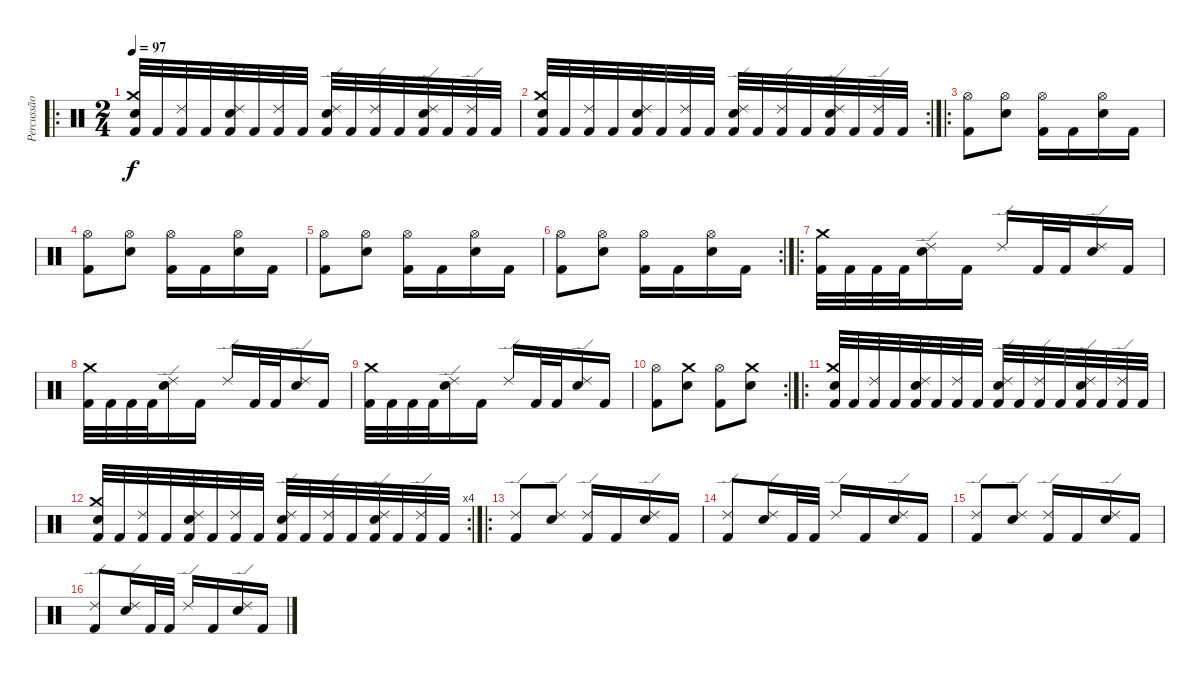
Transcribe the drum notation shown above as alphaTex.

\track ("Percussão" "Percussão") {instrument percussion}
\staff {score}
\articulation defaults
\ro
\ts (2 4)
\tempo 97
\clef neutral
\ks c
("Snare (hit) 2" "Crash medium (hit)" "Kick (hit) 2").32{dy f} "Kick (hit) 2".32 ("Ride (edge) 2" "Kick (hit) 2").32 "Kick (hit) 2".32 ("Ride (edge) 2" "Snare (hit) 2" "Kick (hit) 2").32 "Kick (hit) 2".32 ("Ride (edge) 2" "Kick (hit) 2").32 "Kick (hit) 2".32 ("Ride (edge) 2" "Snare (hit) 2" "Kick (hit) 2").32 "Kick (hit) 2".32 ("Ride (edge) 2" "Kick (hit) 2").32 "Kick (hit) 2".32 ("Ride (edge) 2" "Snare (hit) 2" "Kick (hit) 2").32 "Kick (hit) 2".32 ("Ride (edge) 2" "Kick (hit) 2").32 "Kick (hit) 2".32 |
\rc 2
("Snare (hit) 2" "Crash medium (hit)" "Kick (hit) 2").32 "Kick (hit) 2".32 ("Ride (edge) 2" "Kick (hit) 2").32 "Kick (hit) 2".32 ("Ride (edge) 2" "Snare (hit) 2" "Kick (hit) 2").32 "Kick (hit) 2".32 ("Ride (edge) 2" "Kick (hit) 2").32 "Kick (hit) 2".32 ("Ride (edge) 2" "Snare (hit) 2" "Kick (hit) 2").32 "Kick (hit) 2".32 ("Ride (edge) 2" "Kick (hit) 2").32 "Kick (hit) 2".32 ("Ride (edge) 2" "Snare (hit) 2" "Kick (hit) 2").32 "Kick (hit) 2".32 ("Ride (edge) 2" "Kick (hit) 2").32 "Kick (hit) 2".32 |
\ro
("Hi-Hat (open)" "Kick (hit) 2").8 ("Hi-Hat (open)" "Snare (hit) 2").8 ("Hi-Hat (open)" "Kick (hit) 2").16 "Kick (hit) 2".16 ("Hi-Hat (open)" "Snare (hit) 2").16 "Kick (hit) 2".16 |
("Hi-Hat (open)" "Kick (hit) 2").8 ("Hi-Hat (open)" "Snare (hit) 2").8 ("Hi-Hat (open)" "Kick (hit) 2").16 "Kick (hit) 2".16 ("Hi-Hat (open)" "Snare (hit) 2").16 "Kick (hit) 2".16 |
("Hi-Hat (open)" "Kick (hit) 2").8 ("Hi-Hat (open)" "Snare (hit) 2").8 ("Hi-Hat (open)" "Kick (hit) 2").16 "Kick (hit) 2".16 ("Hi-Hat (open)" "Snare (hit) 2").16 "Kick (hit) 2".16 |
\rc 2
("Hi-Hat (open)" "Kick (hit) 2").8 ("Hi-Hat (open)" "Snare (hit) 2").8 ("Hi-Hat (open)" "Kick (hit) 2").16 "Kick (hit) 2".16 ("Hi-Hat (open)" "Snare (hit) 2").16 "Kick (hit) 2".16 |
\ro
("Crash medium (hit)" "Kick (hit) 2").32 "Kick (hit) 2".32 "Kick (hit) 2".32 "Kick (hit) 2".32 ("Ride (edge) 2" "Snare (hit) 2").16 "Kick (hit) 2".16 "Ride (edge) 2".16 "Kick (hit) 2".32 "Kick (hit) 2".32 ("Ride (edge) 2" "Snare (hit) 2").16 "Kick (hit) 2".16 |
("Crash medium (hit)" "Kick (hit) 2").32 "Kick (hit) 2".32 "Kick (hit) 2".32 "Kick (hit) 2".32 ("Ride (edge) 2" "Snare (hit) 2").16 "Kick (hit) 2".16 "Ride (edge) 2".16 "Kick (hit) 2".32 "Kick (hit) 2".32 ("Ride (edge) 2" "Snare (hit) 2").16 "Kick (hit) 2".16 |
("Crash medium (hit)" "Kick (hit) 2").32 "Kick (hit) 2".32 "Kick (hit) 2".32 "Kick (hit) 2".32 ("Ride (edge) 2" "Snare (hit) 2").16 "Kick (hit) 2".16 "Ride (edge) 2".16 "Kick (hit) 2".32 "Kick (hit) 2".32 ("Ride (edge) 2" "Snare (hit) 2").16 "Kick (hit) 2".16 |
\rc 2
("Hi-Hat (open)" "Kick (hit) 2").8 ("Crash medium (hit)" "Snare (hit) 2").8 ("Hi-Hat (open)" "Kick (hit) 2").8 ("Crash medium (hit)" "Snare (hit) 2").8 |
\ro
("Snare (hit) 2" "Crash medium (hit)" "Kick (hit) 2").32 "Kick (hit) 2".32 ("Ride (edge) 2" "Kick (hit) 2").32 "Kick (hit) 2".32 ("Ride (edge) 2" "Snare (hit) 2" "Kick (hit) 2").32 "Kick (hit) 2".32 ("Ride (edge) 2" "Kick (hit) 2").32 "Kick (hit) 2".32 ("Ride (edge) 2" "Snare (hit) 2" "Kick (hit) 2").32 "Kick (hit) 2".32 ("Ride (edge) 2" "Kick (hit) 2").32 "Kick (hit) 2".32 ("Ride (edge) 2" "Snare (hit) 2" "Kick (hit) 2").32 "Kick (hit) 2".32 ("Ride (edge) 2" "Kick (hit) 2").32 "Kick (hit) 2".32 |
\rc 4
("Snare (hit) 2" "Crash medium (hit)" "Kick (hit) 2").32 "Kick (hit) 2".32 ("Ride (edge) 2" "Kick (hit) 2").32 "Kick (hit) 2".32 ("Ride (edge) 2" "Snare (hit) 2" "Kick (hit) 2").32 "Kick (hit) 2".32 ("Ride (edge) 2" "Kick (hit) 2").32 "Kick (hit) 2".32 ("Ride (edge) 2" "Snare (hit) 2" "Kick (hit) 2").32 "Kick (hit) 2".32 ("Ride (edge) 2" "Kick (hit) 2").32 "Kick (hit) 2".32 ("Ride (edge) 2" "Snare (hit) 2" "Kick (hit) 2").32 "Kick (hit) 2".32 ("Ride (edge) 2" "Kick (hit) 2").32 "Kick (hit) 2".32 |
\ro
("Ride (edge) 2" "Kick (hit) 2").8 ("Ride (edge) 2" "Snare (hit) 2").8 ("Ride (edge) 2" "Kick (hit) 2").16 "Kick (hit) 2".16 ("Ride (edge) 2" "Snare (hit) 2").16 "Kick (hit) 2".16 |
("Ride (edge) 2" "Kick (hit) 2").8 ("Ride (edge) 2" "Snare (hit) 2").16 "Kick (hit) 2".32 "Kick (hit) 2".32 "Ride (edge) 2".16 "Kick (hit) 2".16 ("Ride (edge) 2" "Snare (hit) 2").16 "Kick (hit) 2".16 |
("Ride (edge) 2" "Kick (hit) 2").8 ("Ride (edge) 2" "Snare (hit) 2").8 ("Ride (edge) 2" "Kick (hit) 2").16 "Kick (hit) 2".16 ("Ride (edge) 2" "Snare (hit) 2").16 "Kick (hit) 2".16 |
("Ride (edge) 2" "Kick (hit) 2").8 ("Ride (edge) 2" "Snare (hit) 2").16 "Kick (hit) 2".32 "Kick (hit) 2".32 "Ride (edge) 2".16 "Kick (hit) 2".16 ("Ride (edge) 2" "Snare (hit) 2").16 "Kick (hit) 2".16
